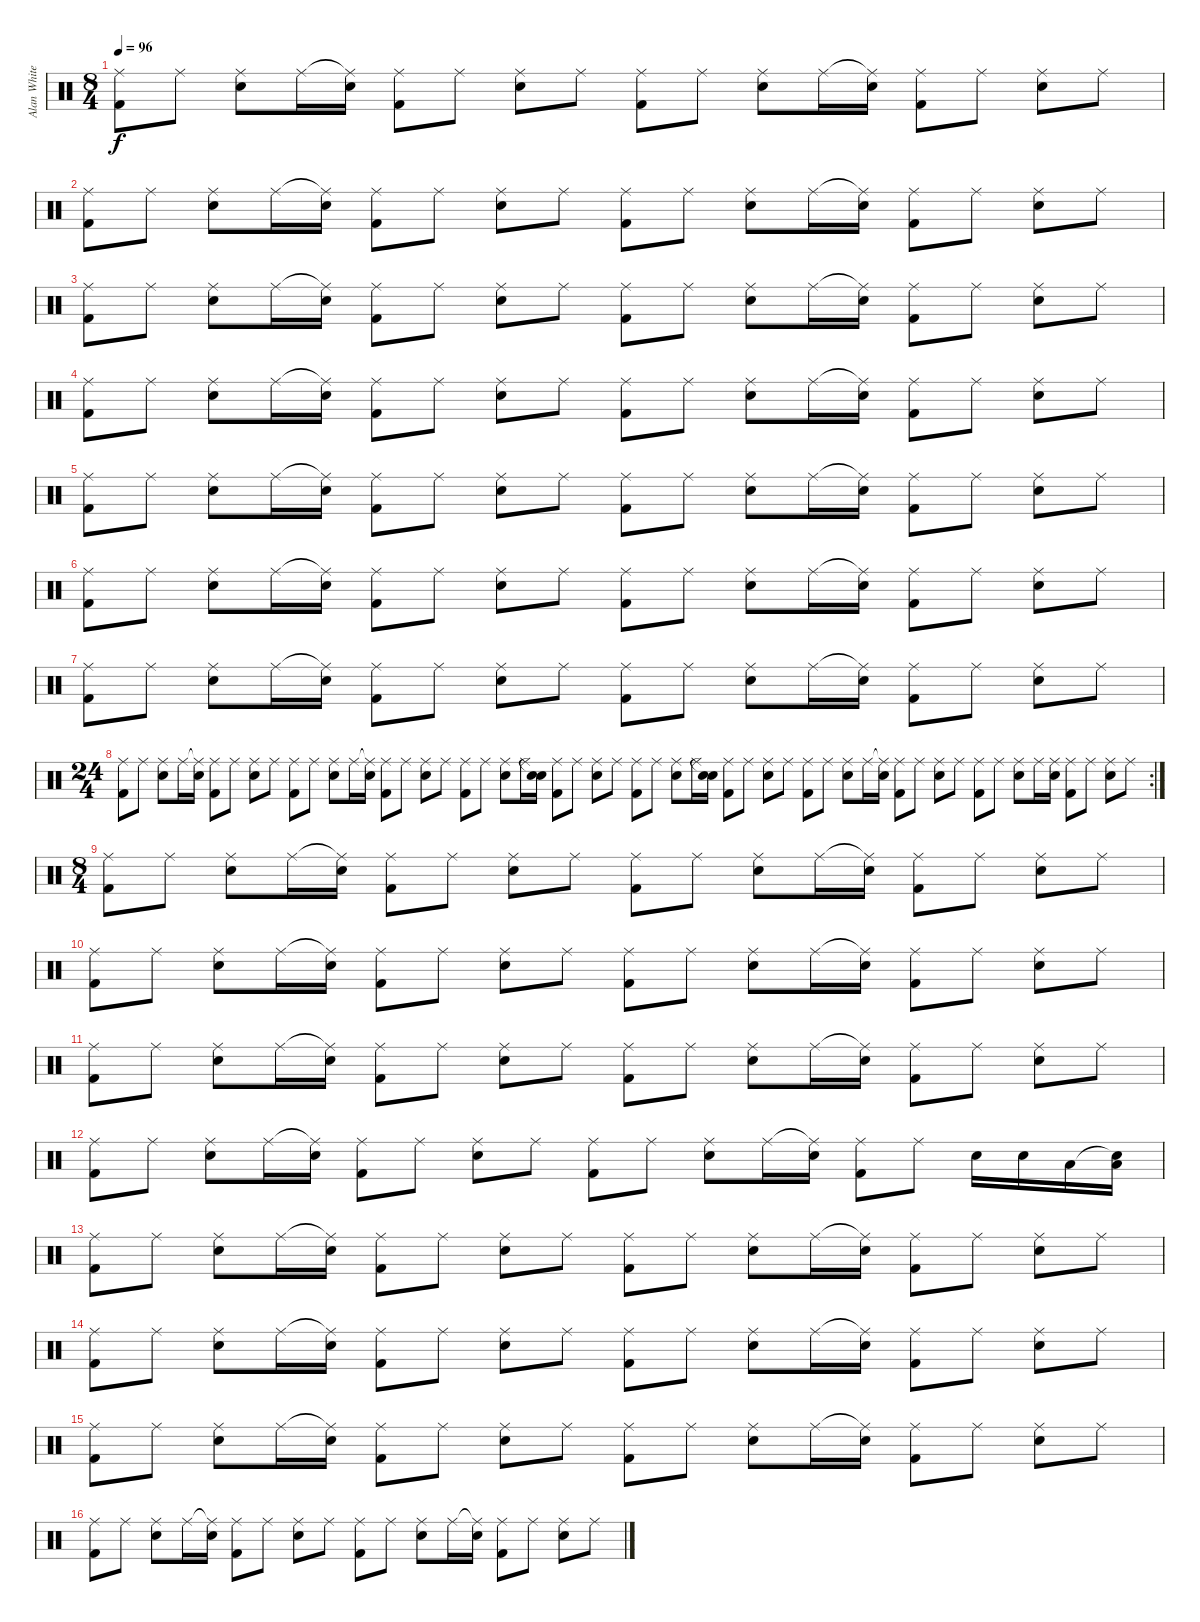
\track ("Alan White" "Alan White") {instrument percussion}
\staff {score}
\articulation defaults
\ts (8 4)
\tempo 96
\clef neutral
\ks c
("Ride (middle)" "Kick (hit) 2").8{dy f} "Ride (middle)".8 ("Ride (middle)" "Electric Snare (hit)").8 "Ride (middle)".16 ("Ride (middle)"{t} "Electric Snare (hit)").16 ("Ride (middle)" "Kick (hit) 2").8 "Ride (middle)".8 ("Ride (middle)" "Electric Snare (hit)").8 "Ride (middle)".8 ("Ride (middle)" "Kick (hit) 2").8 "Ride (middle)".8 ("Ride (middle)" "Electric Snare (hit)").8 "Ride (middle)".16 ("Ride (middle)"{t} "Electric Snare (hit)").16 ("Ride (middle)" "Kick (hit) 2").8 "Ride (middle)".8 ("Ride (middle)" "Electric Snare (hit)").8 "Ride (middle)".8 |
("Ride (middle)" "Kick (hit) 2").8 "Ride (middle)".8 ("Ride (middle)" "Electric Snare (hit)").8 "Ride (middle)".16 ("Ride (middle)"{t} "Electric Snare (hit)").16 ("Ride (middle)" "Kick (hit) 2").8 "Ride (middle)".8 ("Ride (middle)" "Electric Snare (hit)").8 "Ride (middle)".8 ("Ride (middle)" "Kick (hit) 2").8 "Ride (middle)".8 ("Ride (middle)" "Electric Snare (hit)").8 "Ride (middle)".16 ("Ride (middle)"{t} "Electric Snare (hit)").16 ("Ride (middle)" "Kick (hit) 2").8 "Ride (middle)".8 ("Ride (middle)" "Electric Snare (hit)").8 "Ride (middle)".8 |
("Ride (middle)" "Kick (hit) 2").8 "Ride (middle)".8 ("Ride (middle)" "Electric Snare (hit)").8 "Ride (middle)".16 ("Ride (middle)"{t} "Electric Snare (hit)").16 ("Ride (middle)" "Kick (hit) 2").8 "Ride (middle)".8 ("Ride (middle)" "Electric Snare (hit)").8 "Ride (middle)".8 ("Ride (middle)" "Kick (hit) 2").8 "Ride (middle)".8 ("Ride (middle)" "Electric Snare (hit)").8 "Ride (middle)".16 ("Ride (middle)"{t} "Electric Snare (hit)").16 ("Ride (middle)" "Kick (hit) 2").8 "Ride (middle)".8 ("Ride (middle)" "Electric Snare (hit)").8 "Ride (middle)".8 |
("Ride (middle)" "Kick (hit) 2").8 "Ride (middle)".8 ("Ride (middle)" "Electric Snare (hit)").8 "Ride (middle)".16 ("Ride (middle)"{t} "Electric Snare (hit)").16 ("Ride (middle)" "Kick (hit) 2").8 "Ride (middle)".8 ("Ride (middle)" "Electric Snare (hit)").8 "Ride (middle)".8 ("Ride (middle)" "Kick (hit) 2").8 "Ride (middle)".8 ("Ride (middle)" "Electric Snare (hit)").8 "Ride (middle)".16 ("Ride (middle)"{t} "Electric Snare (hit)").16 ("Ride (middle)" "Kick (hit) 2").8 "Ride (middle)".8 ("Ride (middle)" "Electric Snare (hit)").8 "Ride (middle)".8 |
("Ride (middle)" "Kick (hit) 2").8 "Ride (middle)".8 ("Ride (middle)" "Electric Snare (hit)").8 "Ride (middle)".16 ("Ride (middle)"{t} "Electric Snare (hit)").16 ("Ride (middle)" "Kick (hit) 2").8 "Ride (middle)".8 ("Ride (middle)" "Electric Snare (hit)").8 "Ride (middle)".8 ("Ride (middle)" "Kick (hit) 2").8 "Ride (middle)".8 ("Ride (middle)" "Electric Snare (hit)").8 "Ride (middle)".16 ("Ride (middle)"{t} "Electric Snare (hit)").16 ("Ride (middle)" "Kick (hit) 2").8 "Ride (middle)".8 ("Ride (middle)" "Electric Snare (hit)").8 "Ride (middle)".8 |
("Ride (middle)" "Kick (hit) 2").8 "Ride (middle)".8 ("Ride (middle)" "Electric Snare (hit)").8 "Ride (middle)".16 ("Ride (middle)"{t} "Electric Snare (hit)").16 ("Ride (middle)" "Kick (hit) 2").8 "Ride (middle)".8 ("Ride (middle)" "Electric Snare (hit)").8 "Ride (middle)".8 ("Ride (middle)" "Kick (hit) 2").8 "Ride (middle)".8 ("Ride (middle)" "Electric Snare (hit)").8 "Ride (middle)".16 ("Ride (middle)"{t} "Electric Snare (hit)").16 ("Ride (middle)" "Kick (hit) 2").8 "Ride (middle)".8 ("Ride (middle)" "Electric Snare (hit)").8 "Ride (middle)".8 |
("Ride (middle)" "Kick (hit) 2").8 "Ride (middle)".8 ("Ride (middle)" "Electric Snare (hit)").8 "Ride (middle)".16 ("Ride (middle)"{t} "Electric Snare (hit)").16 ("Ride (middle)" "Kick (hit) 2").8 "Ride (middle)".8 ("Ride (middle)" "Electric Snare (hit)").8 "Ride (middle)".8 ("Ride (middle)" "Kick (hit) 2").8 "Ride (middle)".8 ("Ride (middle)" "Electric Snare (hit)").8 "Ride (middle)".16 ("Ride (middle)"{t} "Electric Snare (hit)").16 ("Ride (middle)" "Kick (hit) 2").8 "Ride (middle)".8 ("Ride (middle)" "Electric Snare (hit)").8 "Ride (middle)".8 |
\rc 2
\ts (24 4)
("Ride (middle)" "Kick (hit) 2").8 "Ride (middle)".8 ("Ride (middle)" "Electric Snare (hit)").8 "Ride (middle)".16 ("Ride (middle)"{t} "Electric Snare (hit)").16 ("Ride (middle)" "Kick (hit) 2").8 "Ride (middle)".8 ("Ride (middle)" "Electric Snare (hit)").8 "Ride (middle)".8 ("Ride (middle)" "Kick (hit) 2").8 "Ride (middle)".8 ("Ride (middle)" "Electric Snare (hit)").8 "Ride (middle)".16 ("Ride (middle)"{t} "Electric Snare (hit)").16 ("Ride (middle)" "Kick (hit) 2").8 "Ride (middle)".8 ("Ride (middle)" "Electric Snare (hit)").8 "Ride (middle)".8 ("Ride (middle)" "Kick (hit) 2").8 "Ride (middle)".8 ("Ride (middle)" "Electric Snare (hit)").8 "Ride (middle)".16 ("Snare (hit)"{t} "Electric Snare (hit)").16 ("Ride (middle)" "Kick (hit) 2").8 "Ride (middle)".8 ("Ride (middle)" "Electric Snare (hit)").8 "Ride (middle)".8 ("Ride (middle)" "Kick (hit) 2").8 "Ride (middle)".8 ("Ride (middle)" "Electric Snare (hit)").8 "Ride (middle)".16 ("Snare (hit)"{t} "Electric Snare (hit)").16 ("Ride (middle)" "Kick (hit) 2").8 "Ride (middle)".8 ("Ride (middle)" "Electric Snare (hit)").8 "Ride (middle)".8 ("Ride (middle)" "Kick (hit) 2").8 "Ride (middle)".8 ("Ride (middle)" "Electric Snare (hit)").8 "Ride (middle)".16 ("Ride (middle)"{t} "Electric Snare (hit)").16 ("Ride (middle)" "Kick (hit) 2").8 "Ride (middle)".8 ("Ride (middle)" "Electric Snare (hit)").8 "Ride (middle)".8 ("Ride (middle)" "Kick (hit) 2").8 "Ride (middle)".8 ("Ride (middle)" "Electric Snare (hit)").8 "Ride (middle)".16 ("Ride (middle)" "Electric Snare (hit)").16 ("Ride (middle)" "Kick (hit) 2").8 "Ride (middle)".8 ("Ride (middle)" "Electric Snare (hit)").8 "Ride (middle)".8 |
\ts (8 4)
("Ride (middle)" "Kick (hit) 2").8 "Ride (middle)".8 ("Ride (middle)" "Electric Snare (hit)").8 "Ride (middle)".16 ("Ride (middle)"{t} "Electric Snare (hit)").16 ("Ride (middle)" "Kick (hit) 2").8 "Ride (middle)".8 ("Ride (middle)" "Electric Snare (hit)").8 "Ride (middle)".8 ("Ride (middle)" "Kick (hit) 2").8 "Ride (middle)".8 ("Ride (middle)" "Electric Snare (hit)").8 "Ride (middle)".16 ("Ride (middle)"{t} "Electric Snare (hit)").16 ("Ride (middle)" "Kick (hit) 2").8 "Ride (middle)".8 ("Ride (middle)" "Electric Snare (hit)").8 "Ride (middle)".8 |
("Ride (middle)" "Kick (hit) 2").8 "Ride (middle)".8 ("Ride (middle)" "Electric Snare (hit)").8 "Ride (middle)".16 ("Ride (middle)"{t} "Electric Snare (hit)").16 ("Ride (middle)" "Kick (hit) 2").8 "Ride (middle)".8 ("Ride (middle)" "Electric Snare (hit)").8 "Ride (middle)".8 ("Ride (middle)" "Kick (hit) 2").8 "Ride (middle)".8 ("Ride (middle)" "Electric Snare (hit)").8 "Ride (middle)".16 ("Ride (middle)"{t} "Electric Snare (hit)").16 ("Ride (middle)" "Kick (hit) 2").8 "Ride (middle)".8 ("Ride (middle)" "Electric Snare (hit)").8 "Ride (middle)".8 |
("Ride (middle)" "Kick (hit) 2").8 "Ride (middle)".8 ("Ride (middle)" "Electric Snare (hit)").8 "Ride (middle)".16 ("Ride (middle)"{t} "Electric Snare (hit)").16 ("Ride (middle)" "Kick (hit) 2").8 "Ride (middle)".8 ("Ride (middle)" "Electric Snare (hit)").8 "Ride (middle)".8 ("Ride (middle)" "Kick (hit) 2").8 "Ride (middle)".8 ("Ride (middle)" "Electric Snare (hit)").8 "Ride (middle)".16 ("Ride (middle)"{t} "Electric Snare (hit)").16 ("Ride (middle)" "Kick (hit) 2").8 "Ride (middle)".8 ("Ride (middle)" "Electric Snare (hit)").8 "Ride (middle)".8 |
("Ride (middle)" "Kick (hit) 2").8 "Ride (middle)".8 ("Ride (middle)" "Electric Snare (hit)").8 "Ride (middle)".16 ("Ride (middle)"{t} "Electric Snare (hit)").16 ("Ride (middle)" "Kick (hit) 2").8 "Ride (middle)".8 ("Ride (middle)" "Electric Snare (hit)").8 "Ride (middle)".8 ("Ride (middle)" "Kick (hit) 2").8 "Ride (middle)".8 ("Ride (middle)" "Electric Snare (hit)").8 "Ride (middle)".16 ("Ride (middle)"{t} "Electric Snare (hit)").16 ("Ride (middle)" "Kick (hit) 2").8 "Ride (middle)".8 "Electric Snare (hit)".16 "Electric Snare (hit)".16 "Low Floor Tom (hit)".16 ("Snare (hit)"{t} "Low Floor Tom (hit)").16 |
("Ride (middle)" "Kick (hit) 2").8 "Ride (middle)".8 ("Ride (middle)" "Electric Snare (hit)").8 "Ride (middle)".16 ("Ride (middle)"{t} "Electric Snare (hit)").16 ("Ride (middle)" "Kick (hit) 2").8 "Ride (middle)".8 ("Ride (middle)" "Electric Snare (hit)").8 "Ride (middle)".8 ("Ride (middle)" "Kick (hit) 2").8 "Ride (middle)".8 ("Ride (middle)" "Electric Snare (hit)").8 "Ride (middle)".16 ("Ride (middle)"{t} "Electric Snare (hit)").16 ("Ride (middle)" "Kick (hit) 2").8 "Ride (middle)".8 ("Ride (middle)" "Electric Snare (hit)").8 "Ride (middle)".8 |
("Ride (middle)" "Kick (hit) 2").8 "Ride (middle)".8 ("Ride (middle)" "Electric Snare (hit)").8 "Ride (middle)".16 ("Ride (middle)"{t} "Electric Snare (hit)").16 ("Ride (middle)" "Kick (hit) 2").8 "Ride (middle)".8 ("Ride (middle)" "Electric Snare (hit)").8 "Ride (middle)".8 ("Ride (middle)" "Kick (hit) 2").8 "Ride (middle)".8 ("Ride (middle)" "Electric Snare (hit)").8 "Ride (middle)".16 ("Ride (middle)"{t} "Electric Snare (hit)").16 ("Ride (middle)" "Kick (hit) 2").8 "Ride (middle)".8 ("Ride (middle)" "Electric Snare (hit)").8 "Ride (middle)".8 |
("Ride (middle)" "Kick (hit) 2").8 "Ride (middle)".8 ("Ride (middle)" "Electric Snare (hit)").8 "Ride (middle)".16 ("Ride (middle)"{t} "Electric Snare (hit)").16 ("Ride (middle)" "Kick (hit) 2").8 "Ride (middle)".8 ("Ride (middle)" "Electric Snare (hit)").8 "Ride (middle)".8 ("Ride (middle)" "Kick (hit) 2").8 "Ride (middle)".8 ("Ride (middle)" "Electric Snare (hit)").8 "Ride (middle)".16 ("Ride (middle)"{t} "Electric Snare (hit)").16 ("Ride (middle)" "Kick (hit) 2").8 "Ride (middle)".8 ("Ride (middle)" "Electric Snare (hit)").8 "Ride (middle)".8 |
("Ride (middle)" "Kick (hit) 2").8 "Ride (middle)".8 ("Ride (middle)" "Electric Snare (hit)").8 "Ride (middle)".16 ("Ride (middle)"{t} "Electric Snare (hit)").16 ("Ride (middle)" "Kick (hit) 2").8 "Ride (middle)".8 ("Ride (middle)" "Electric Snare (hit)").8 "Ride (middle)".8 ("Ride (middle)" "Kick (hit) 2").8 "Ride (middle)".8 ("Ride (middle)" "Electric Snare (hit)").8 "Ride (middle)".16 ("Ride (middle)"{t} "Electric Snare (hit)").16 ("Ride (middle)" "Kick (hit) 2").8 "Ride (middle)".8 ("Ride (middle)" "Electric Snare (hit)").8 "Ride (middle)".8
